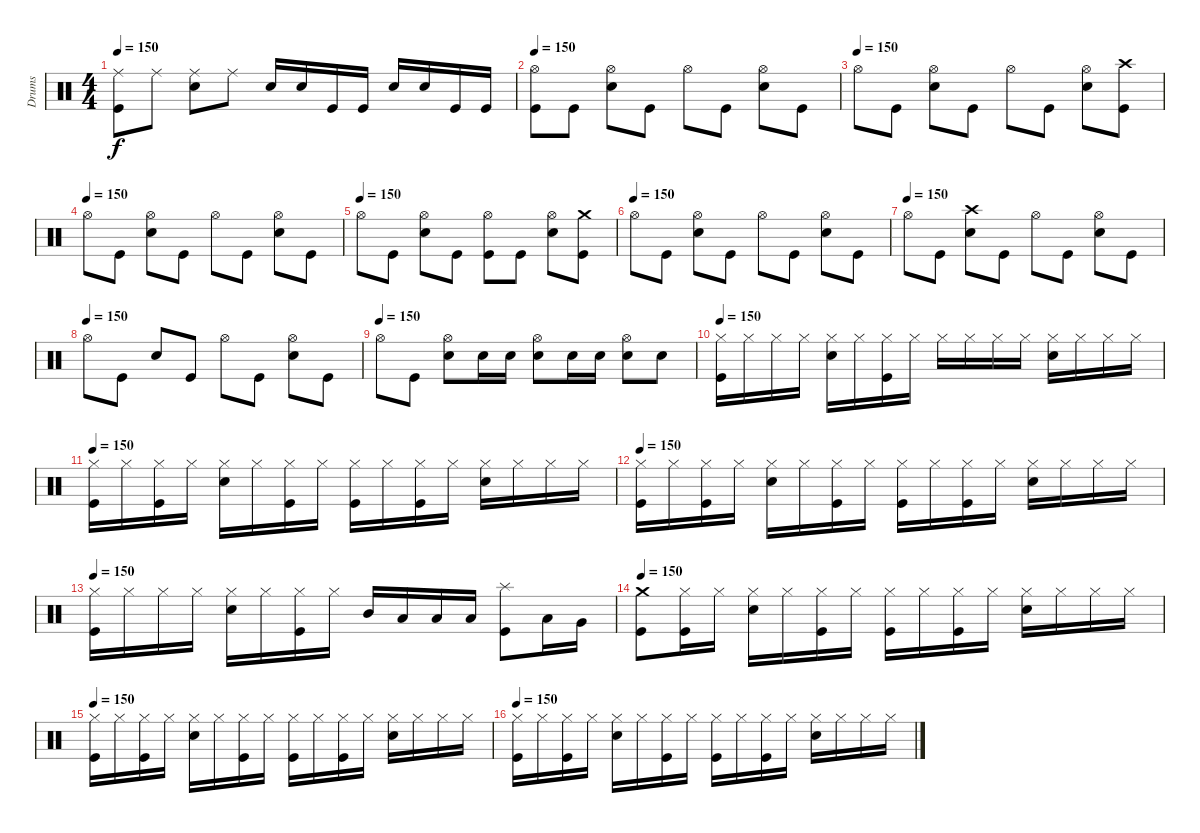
\track ("Drums" "Drums") {instrument percussion}
\staff {score}
\articulation defaults
\ts (4 4)
\tempo 150
\clef neutral
\ks c
("Ride (middle)" "Kick (hit)").8{dy f} "Ride (middle)".8 ("Ride (middle)" "Snare (hit) 2").8 "Ride (middle)".8 "Snare (hit) 2".16 "Snare (hit) 2".16 "Kick (hit)".16 "Kick (hit)".16 "Snare (hit) 2".16 "Snare (hit) 2".16 "Kick (hit)".16 "Kick (hit)".16 |
\tempo 150
("Hi-Hat (open)" "Kick (hit)").8 "Kick (hit)".8 ("Hi-Hat (open)" "Snare (hit) 2").8 "Kick (hit)".8 "Hi-Hat (open)".8 "Kick (hit)".8 ("Hi-Hat (open)" "Snare (hit) 2").8 "Kick (hit)".8 |
\tempo (150)
"Hi-Hat (open)".8 "Kick (hit)".8 ("Hi-Hat (open)" "Snare (hit) 2").8 "Kick (hit)".8 "Hi-Hat (open)".8 "Kick (hit)".8 ("Hi-Hat (open)" "Snare (hit) 2").8 ("Crash high (hit)" "Kick (hit)").8 |
\tempo (150)
"Hi-Hat (open)".8 "Kick (hit)".8 ("Hi-Hat (open)" "Snare (hit) 2").8 "Kick (hit)".8 "Hi-Hat (open)".8 "Kick (hit)".8 ("Hi-Hat (open)" "Snare (hit) 2").8 "Kick (hit)".8 |
\tempo (150)
"Hi-Hat (open)".8 "Kick (hit)".8 ("Hi-Hat (open)" "Snare (hit) 2").8 "Kick (hit)".8 ("Hi-Hat (open)" "Kick (hit)").8 "Kick (hit)".8 ("Hi-Hat (open)" "Snare (hit) 2").8 ("Crash medium (hit)" "Kick (hit)").8 |
\tempo (150)
"Hi-Hat (open)".8 "Kick (hit)".8 ("Hi-Hat (open)" "Snare (hit) 2").8 "Kick (hit)".8 "Hi-Hat (open)".8 "Kick (hit)".8 ("Hi-Hat (open)" "Snare (hit) 2").8 "Kick (hit)".8 |
\tempo (150)
"Hi-Hat (open)".8 "Kick (hit)".8 ("Crash high (hit)" "Snare (hit) 2").8 "Kick (hit)".8 "Hi-Hat (open)".8 "Kick (hit)".8 ("Hi-Hat (open)" "Snare (hit) 2").8 "Kick (hit)".8 |
\tempo (150)
"Hi-Hat (open)".8 "Kick (hit)".8 "Snare (hit) 2".8 "Kick (hit)".8 "Hi-Hat (open)".8 "Kick (hit)".8 ("Hi-Hat (open)" "Snare (hit) 2").8 "Kick (hit)".8 |
\tempo (150)
"Hi-Hat (open)".8 "Kick (hit)".8 ("Hi-Hat (open)" "Snare (hit) 2").8 "Snare (hit) 2".16 "Snare (hit) 2".16 ("Hi-Hat (open)" "Snare (hit) 2").8 "Snare (hit) 2".16 "Snare (hit) 2".16 ("Hi-Hat (open)" "Snare (hit) 2").8 "Snare (hit) 2".8 |
\tempo 150
("Hi-Hat (closed)" "Kick (hit)").16 "Hi-Hat (closed)".16 "Hi-Hat (closed)".16 "Hi-Hat (closed)".16 ("Hi-Hat (closed)" "Snare (hit) 2").16 "Hi-Hat (closed)".16 ("Hi-Hat (closed)" "Kick (hit)").16 "Hi-Hat (closed)".16 "Hi-Hat (closed)".16 "Hi-Hat (closed)".16 "Hi-Hat (closed)".16 "Hi-Hat (closed)".16 ("Hi-Hat (closed)" "Snare (hit) 2").16 "Hi-Hat (closed)".16 "Hi-Hat (closed)".16 "Hi-Hat (closed)".16 |
\tempo 150
("Hi-Hat (closed)" "Kick (hit)").16 "Hi-Hat (closed)".16 ("Hi-Hat (closed)" "Kick (hit)").16 "Hi-Hat (closed)".16 ("Hi-Hat (closed)" "Snare (hit) 2").16 "Hi-Hat (closed)".16 ("Hi-Hat (closed)" "Kick (hit)").16 "Hi-Hat (closed)".16 ("Hi-Hat (closed)" "Kick (hit)").16 "Hi-Hat (closed)".16 ("Hi-Hat (closed)" "Kick (hit)").16 "Hi-Hat (closed)".16 ("Hi-Hat (closed)" "Snare (hit) 2").16 "Hi-Hat (closed)".16 "Hi-Hat (closed)".16 "Hi-Hat (closed)".16 |
\tempo 150
("Hi-Hat (closed)" "Kick (hit)").16 "Hi-Hat (closed)".16 ("Hi-Hat (closed)" "Kick (hit)").16 "Hi-Hat (closed)".16 ("Hi-Hat (closed)" "Snare (hit) 2").16 "Hi-Hat (closed)".16 ("Hi-Hat (closed)" "Kick (hit)").16 "Hi-Hat (closed)".16 ("Hi-Hat (closed)" "Kick (hit)").16 "Hi-Hat (closed)".16 ("Hi-Hat (closed)" "Kick (hit)").16 "Hi-Hat (closed)".16 ("Hi-Hat (closed)" "Snare (hit) 2").16 "Hi-Hat (closed)".16 "Hi-Hat (closed)".16 "Hi-Hat (closed)".16 |
\tempo 150
("Hi-Hat (closed)" "Kick (hit)").16 "Hi-Hat (closed)".16 "Hi-Hat (closed)".16 "Hi-Hat (closed)".16 ("Hi-Hat (closed)" "Snare (hit) 2").16 "Hi-Hat (closed)".16 ("Hi-Hat (closed)" "Kick (hit)").16 "Hi-Hat (closed)".16 "Mid Tom (hit)".16 "Low Tom (hit)".16 "Low Tom (hit)".16 "Low Tom (hit)".16 ("Splash (hit)" "Kick (hit)").8 "Low Tom (hit)".16 "Very Low Tom (hit)".16 |
\tempo 150
("Crash medium (hit)" "Kick (hit)").8 ("Hi-Hat (closed)" "Kick (hit)").16 "Hi-Hat (closed)".16 ("Hi-Hat (closed)" "Snare (hit) 2").16 "Hi-Hat (closed)".16 ("Hi-Hat (closed)" "Kick (hit)").16 "Hi-Hat (closed)".16 ("Hi-Hat (closed)" "Kick (hit)").16 "Hi-Hat (closed)".16 ("Hi-Hat (closed)" "Kick (hit)").16 "Hi-Hat (closed)".16 ("Hi-Hat (closed)" "Snare (hit) 2").16 "Hi-Hat (closed)".16 "Hi-Hat (closed)".16 "Hi-Hat (closed)".16 |
\tempo 150
("Hi-Hat (closed)" "Kick (hit)").16 "Hi-Hat (closed)".16 ("Hi-Hat (closed)" "Kick (hit)").16 "Hi-Hat (closed)".16 ("Hi-Hat (closed)" "Snare (hit) 2").16 "Hi-Hat (closed)".16 ("Hi-Hat (closed)" "Kick (hit)").16 "Hi-Hat (closed)".16 ("Hi-Hat (closed)" "Kick (hit)").16 "Hi-Hat (closed)".16 ("Hi-Hat (closed)" "Kick (hit)").16 "Hi-Hat (closed)".16 ("Hi-Hat (closed)" "Snare (hit) 2").16 "Hi-Hat (closed)".16 "Hi-Hat (closed)".16 "Hi-Hat (closed)".16 |
\tempo 150
("Hi-Hat (closed)" "Kick (hit)").16 "Hi-Hat (closed)".16 ("Hi-Hat (closed)" "Kick (hit)").16 "Hi-Hat (closed)".16 ("Hi-Hat (closed)" "Snare (hit) 2").16 "Hi-Hat (closed)".16 ("Hi-Hat (closed)" "Kick (hit)").16 "Hi-Hat (closed)".16 ("Hi-Hat (closed)" "Kick (hit)").16 "Hi-Hat (closed)".16 ("Hi-Hat (closed)" "Kick (hit)").16 "Hi-Hat (closed)".16 ("Hi-Hat (closed)" "Snare (hit) 2").16 "Hi-Hat (closed)".16 "Hi-Hat (closed)".16 "Hi-Hat (closed)".16
